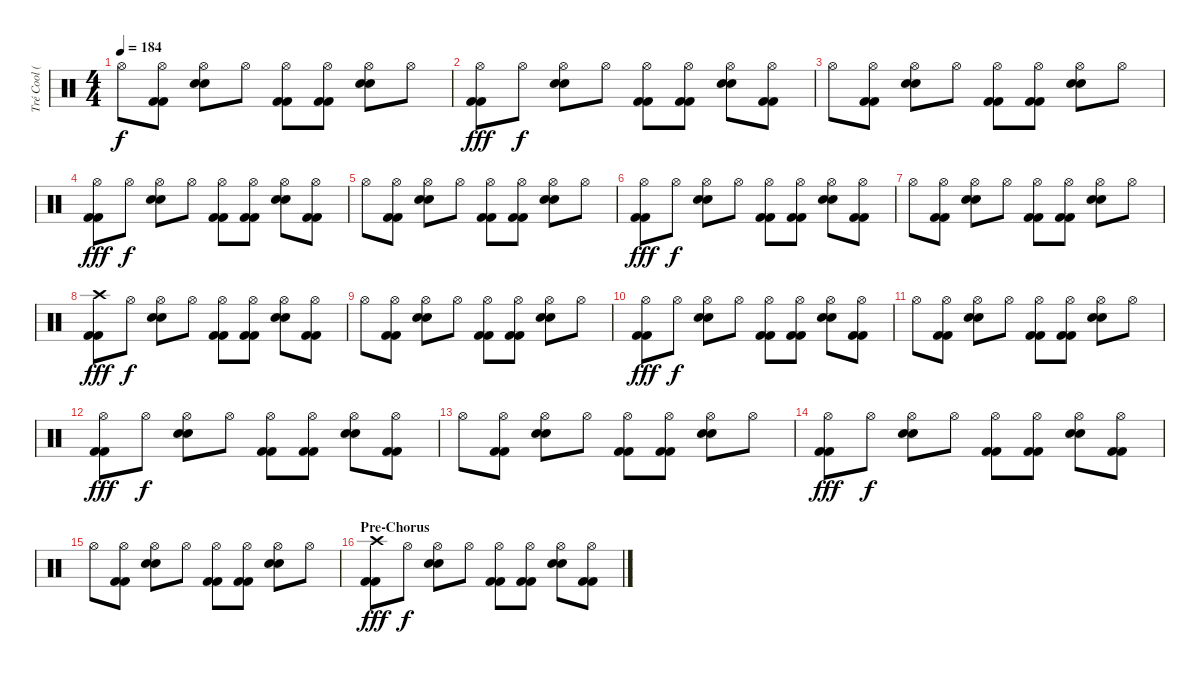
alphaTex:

\track ("Tré Cool (Drums)" "Tré Cool (") {instrument percussion}
\staff {score}
\articulation defaults
\ts (4 4)
\tempo 184
\clef neutral
\ks c "Hi-Hat (open)".8{dy f}
("Kick (hit) 2" "Kick (hit) 2" "Hi-Hat (open)").8 ("Electric Snare (hit)" "Electric Snare (hit)" "Hi-Hat (open)").8 "Hi-Hat (open)".8 ("Kick (hit) 2" "Kick (hit) 2" "Hi-Hat (open)").8 ("Kick (hit) 2" "Kick (hit) 2" "Hi-Hat (open)").8 ("Electric Snare (hit)" "Electric Snare (hit)" "Hi-Hat (open)").8 "Hi-Hat (open)".8 |
("Kick (hit) 2" "Kick (hit) 2" "Hi-Hat (open)").8{dy fff} "Hi-Hat (open)".8{dy f} ("Electric Snare (hit)" "Electric Snare (hit)" "Hi-Hat (open)").8 "Hi-Hat (open)".8 ("Kick (hit) 2" "Kick (hit) 2" "Hi-Hat (open)").8 ("Kick (hit) 2" "Kick (hit) 2" "Hi-Hat (open)").8 ("Electric Snare (hit)" "Electric Snare (hit)" "Hi-Hat (open)").8 ("Kick (hit) 2" "Kick (hit) 2" "Hi-Hat (open)").8 |
"Hi-Hat (open)".8 ("Kick (hit) 2" "Kick (hit) 2" "Hi-Hat (open)").8 ("Electric Snare (hit)" "Electric Snare (hit)" "Hi-Hat (open)").8 "Hi-Hat (open)".8 ("Kick (hit) 2" "Kick (hit) 2" "Hi-Hat (open)").8 ("Kick (hit) 2" "Kick (hit) 2" "Hi-Hat (open)").8 ("Electric Snare (hit)" "Electric Snare (hit)" "Hi-Hat (open)").8 "Hi-Hat (open)".8 |
("Kick (hit) 2" "Kick (hit) 2" "Hi-Hat (open)").8{dy fff} "Hi-Hat (open)".8{dy f} ("Electric Snare (hit)" "Electric Snare (hit)" "Hi-Hat (open)").8 "Hi-Hat (open)".8 ("Kick (hit) 2" "Kick (hit) 2" "Hi-Hat (open)").8 ("Kick (hit) 2" "Kick (hit) 2" "Hi-Hat (open)").8 ("Electric Snare (hit)" "Electric Snare (hit)" "Hi-Hat (open)").8 ("Kick (hit) 2" "Kick (hit) 2" "Hi-Hat (open)").8 |
"Hi-Hat (open)".8 ("Kick (hit) 2" "Kick (hit) 2" "Hi-Hat (open)").8 ("Electric Snare (hit)" "Electric Snare (hit)" "Hi-Hat (open)").8 "Hi-Hat (open)".8 ("Kick (hit) 2" "Kick (hit) 2" "Hi-Hat (open)").8 ("Kick (hit) 2" "Kick (hit) 2" "Hi-Hat (open)").8 ("Electric Snare (hit)" "Electric Snare (hit)" "Hi-Hat (open)").8 "Hi-Hat (open)".8 |
("Kick (hit) 2" "Kick (hit) 2" "Hi-Hat (open)").8{dy fff} "Hi-Hat (open)".8{dy f} ("Electric Snare (hit)" "Electric Snare (hit)" "Hi-Hat (open)").8 "Hi-Hat (open)".8 ("Kick (hit) 2" "Kick (hit) 2" "Hi-Hat (open)").8 ("Kick (hit) 2" "Kick (hit) 2" "Hi-Hat (open)").8 ("Electric Snare (hit)" "Electric Snare (hit)" "Hi-Hat (open)").8 ("Kick (hit) 2" "Kick (hit) 2" "Hi-Hat (open)").8 |
"Hi-Hat (open)".8 ("Kick (hit) 2" "Kick (hit) 2" "Hi-Hat (open)").8 ("Electric Snare (hit)" "Electric Snare (hit)" "Hi-Hat (open)").8 "Hi-Hat (open)".8 ("Kick (hit) 2" "Kick (hit) 2" "Hi-Hat (open)").8 ("Kick (hit) 2" "Kick (hit) 2" "Hi-Hat (open)").8 ("Electric Snare (hit)" "Electric Snare (hit)" "Hi-Hat (open)").8 "Hi-Hat (open)".8 |
("Kick (hit) 2" "Kick (hit) 2" "Crash high (hit)").8{dy fff} "Hi-Hat (open)".8{dy f} ("Electric Snare (hit)" "Electric Snare (hit)" "Hi-Hat (open)").8 "Hi-Hat (open)".8 ("Kick (hit) 2" "Kick (hit) 2" "Hi-Hat (open)").8 ("Kick (hit) 2" "Kick (hit) 2" "Hi-Hat (open)").8 ("Electric Snare (hit)" "Electric Snare (hit)" "Hi-Hat (open)").8 ("Kick (hit) 2" "Kick (hit) 2" "Hi-Hat (open)").8 |
"Hi-Hat (open)".8 ("Kick (hit) 2" "Kick (hit) 2" "Hi-Hat (open)").8 ("Electric Snare (hit)" "Electric Snare (hit)" "Hi-Hat (open)").8 "Hi-Hat (open)".8 ("Kick (hit) 2" "Kick (hit) 2" "Hi-Hat (open)").8 ("Kick (hit) 2" "Kick (hit) 2" "Hi-Hat (open)").8 ("Electric Snare (hit)" "Electric Snare (hit)" "Hi-Hat (open)").8 "Hi-Hat (open)".8 |
("Kick (hit) 2" "Kick (hit) 2" "Hi-Hat (open)").8{dy fff} "Hi-Hat (open)".8{dy f} ("Electric Snare (hit)" "Electric Snare (hit)" "Hi-Hat (open)").8 "Hi-Hat (open)".8 ("Kick (hit) 2" "Kick (hit) 2" "Hi-Hat (open)").8 ("Kick (hit) 2" "Kick (hit) 2" "Hi-Hat (open)").8 ("Electric Snare (hit)" "Electric Snare (hit)" "Hi-Hat (open)").8 ("Kick (hit) 2" "Kick (hit) 2" "Hi-Hat (open)").8 |
"Hi-Hat (open)".8 ("Kick (hit) 2" "Kick (hit) 2" "Hi-Hat (open)").8 ("Electric Snare (hit)" "Electric Snare (hit)" "Hi-Hat (open)").8 "Hi-Hat (open)".8 ("Kick (hit) 2" "Kick (hit) 2" "Hi-Hat (open)").8 ("Kick (hit) 2" "Kick (hit) 2" "Hi-Hat (open)").8 ("Electric Snare (hit)" "Electric Snare (hit)" "Hi-Hat (open)").8 "Hi-Hat (open)".8 |
("Kick (hit) 2" "Kick (hit) 2" "Hi-Hat (open)").8{dy fff} "Hi-Hat (open)".8{dy f} ("Electric Snare (hit)" "Electric Snare (hit)" "Hi-Hat (open)").8 "Hi-Hat (open)".8 ("Kick (hit) 2" "Kick (hit) 2" "Hi-Hat (open)").8 ("Kick (hit) 2" "Kick (hit) 2" "Hi-Hat (open)").8 ("Electric Snare (hit)" "Electric Snare (hit)" "Hi-Hat (open)").8 ("Kick (hit) 2" "Kick (hit) 2" "Hi-Hat (open)").8 |
"Hi-Hat (open)".8 ("Kick (hit) 2" "Kick (hit) 2" "Hi-Hat (open)").8 ("Electric Snare (hit)" "Electric Snare (hit)" "Hi-Hat (open)").8 "Hi-Hat (open)".8 ("Kick (hit) 2" "Kick (hit) 2" "Hi-Hat (open)").8 ("Kick (hit) 2" "Kick (hit) 2" "Hi-Hat (open)").8 ("Electric Snare (hit)" "Electric Snare (hit)" "Hi-Hat (open)").8 "Hi-Hat (open)".8 |
("Kick (hit) 2" "Kick (hit) 2" "Hi-Hat (open)").8{dy fff} "Hi-Hat (open)".8{dy f} ("Electric Snare (hit)" "Electric Snare (hit)" "Hi-Hat (open)").8 "Hi-Hat (open)".8 ("Kick (hit) 2" "Kick (hit) 2" "Hi-Hat (open)").8 ("Kick (hit) 2" "Kick (hit) 2" "Hi-Hat (open)").8 ("Electric Snare (hit)" "Electric Snare (hit)" "Hi-Hat (open)").8 ("Kick (hit) 2" "Kick (hit) 2" "Hi-Hat (open)").8 |
"Hi-Hat (open)".8 ("Kick (hit) 2" "Kick (hit) 2" "Hi-Hat (open)").8 ("Electric Snare (hit)" "Electric Snare (hit)" "Hi-Hat (open)").8 "Hi-Hat (open)".8 ("Kick (hit) 2" "Kick (hit) 2" "Hi-Hat (open)").8 ("Kick (hit) 2" "Kick (hit) 2" "Hi-Hat (open)").8 ("Electric Snare (hit)" "Electric Snare (hit)" "Hi-Hat (open)").8 "Hi-Hat (open)".8 |
\section ("" "Pre-Chorus")
("Kick (hit) 2" "Kick (hit) 2" "Crash high (hit)").8{dy fff} "Hi-Hat (open)".8{dy f} ("Electric Snare (hit)" "Electric Snare (hit)" "Hi-Hat (open)").8 "Hi-Hat (open)".8 ("Kick (hit) 2" "Kick (hit) 2" "Hi-Hat (open)").8 ("Kick (hit) 2" "Kick (hit) 2" "Hi-Hat (open)").8 ("Electric Snare (hit)" "Electric Snare (hit)" "Hi-Hat (open)").8 ("Kick (hit) 2" "Kick (hit) 2" "Hi-Hat (open)").8
